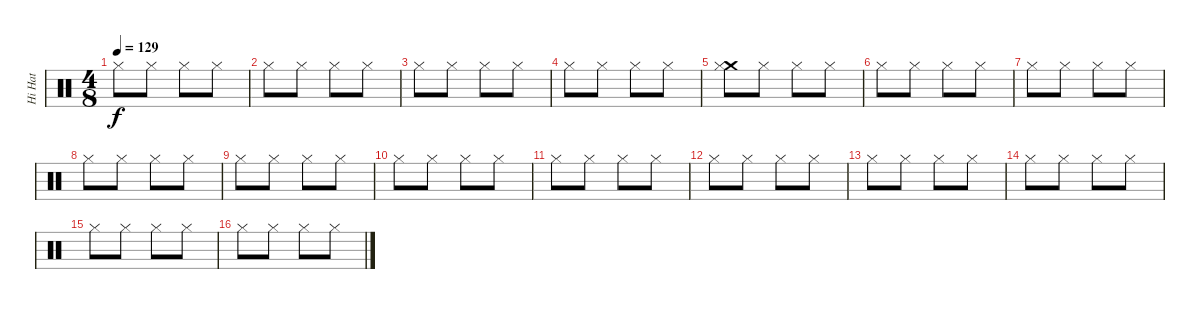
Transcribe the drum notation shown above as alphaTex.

\track ("Hi Hat" "Hi Hat") {instrument percussion}
\staff {score}
\articulation defaults
\ts (4 8)
\tempo 129
\clef neutral
\ks c "Hi-Hat (closed)".8{dy f} "Hi-Hat (closed)".8 "Hi-Hat (closed)".8 "Hi-Hat (closed)".8
|
"Hi-Hat (closed)".8 "Hi-Hat (closed)".8 "Hi-Hat (closed)".8 "Hi-Hat (closed)".8 |
"Hi-Hat (closed)".8 "Hi-Hat (closed)".8 "Hi-Hat (closed)".8 "Hi-Hat (closed)".8 |
"Hi-Hat (closed)".8 "Hi-Hat (closed)".8 "Hi-Hat (closed)".8 "Hi-Hat (closed)".8 |
("Crash medium (hit)" "Hi-Hat (closed)").8 "Hi-Hat (closed)".8 "Hi-Hat (closed)".8 "Hi-Hat (closed)".8 |
"Hi-Hat (closed)".8 "Hi-Hat (closed)".8 "Hi-Hat (closed)".8 "Hi-Hat (closed)".8 |
"Hi-Hat (closed)".8 "Hi-Hat (closed)".8 "Hi-Hat (closed)".8 "Hi-Hat (closed)".8 |
"Hi-Hat (closed)".8 "Hi-Hat (closed)".8 "Hi-Hat (closed)".8 "Hi-Hat (closed)".8 |
"Hi-Hat (closed)".8 "Hi-Hat (closed)".8 "Hi-Hat (closed)".8 "Hi-Hat (closed)".8 |
"Hi-Hat (closed)".8 "Hi-Hat (closed)".8 "Hi-Hat (closed)".8 "Hi-Hat (closed)".8 |
"Hi-Hat (closed)".8 "Hi-Hat (closed)".8 "Hi-Hat (closed)".8 "Hi-Hat (closed)".8 |
"Hi-Hat (closed)".8 "Hi-Hat (closed)".8 "Hi-Hat (closed)".8 "Hi-Hat (closed)".8 |
"Hi-Hat (closed)".8 "Hi-Hat (closed)".8 "Hi-Hat (closed)".8 "Hi-Hat (closed)".8 |
"Hi-Hat (closed)".8 "Hi-Hat (closed)".8 "Hi-Hat (closed)".8 "Hi-Hat (closed)".8 |
"Hi-Hat (closed)".8 "Hi-Hat (closed)".8 "Hi-Hat (closed)".8 "Hi-Hat (closed)".8 |
"Hi-Hat (closed)".8 "Hi-Hat (closed)".8 "Hi-Hat (closed)".8 "Hi-Hat (closed)".8
